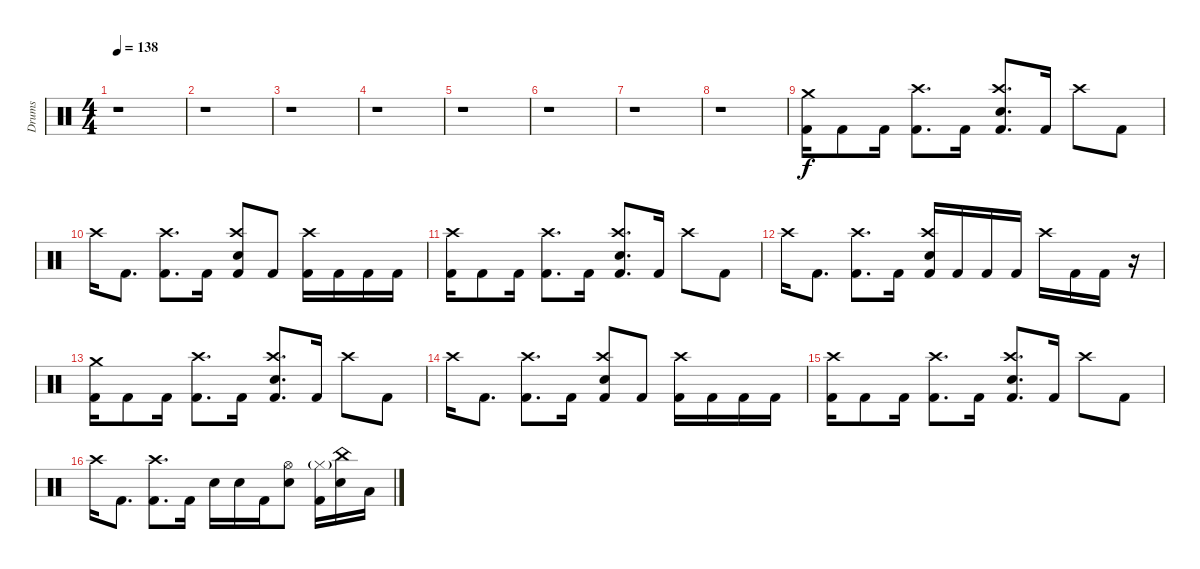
\track ("Drums" "Drums") {instrument percussion}
\staff {score}
\articulation defaults
\ts (4 4)
\tempo 138
\clef neutral
\ks c
r.1{dy f} |
r.1 |
r.1 |
r.1 |
r.1 |
r.1 |
r.1 |
r.1 |
("Crash medium (hit)" "Kick (hit) 2").16 "Kick (hit) 2".8 "Kick (hit) 2".16 ("Crash high (hit)" "Kick (hit) 2").8{d} "Kick (hit) 2".16 ("Crash high (hit)" "Electric Snare (hit)" "Kick (hit) 2").8{d} "Kick (hit) 2".16 "Crash high (hit)".8 "Kick (hit) 2".8 |
"Crash high (hit)".16 "Kick (hit) 2".8{d} ("Crash high (hit)" "Kick (hit) 2").8{d} "Kick (hit) 2".16 ("Crash high (hit)" "Electric Snare (hit)" "Kick (hit) 2").8 "Kick (hit) 2".8 ("Crash high (hit)" "Kick (hit) 2").16 "Kick (hit) 2".16 "Kick (hit) 2".16 "Kick (hit) 2".16 |
("Crash high (hit)" "Kick (hit) 2").16 "Kick (hit) 2".8 "Kick (hit) 2".16 ("Crash high (hit)" "Kick (hit) 2").8{d} "Kick (hit) 2".16 ("Crash high (hit)" "Electric Snare (hit)" "Kick (hit) 2").8{d} "Kick (hit) 2".16 "Crash high (hit)".8 "Kick (hit) 2".8 |
"Crash high (hit)".16 "Kick (hit) 2".8{d} ("Crash high (hit)" "Kick (hit) 2").8{d} "Kick (hit) 2".16 ("Crash high (hit)" "Electric Snare (hit)" "Kick (hit) 2").16 "Kick (hit) 2".16 "Kick (hit) 2".16 "Kick (hit) 2".16 "Crash high (hit)".16 "Kick (hit) 2".16 "Kick (hit) 2".16 r.16 |
("Crash medium (hit)" "Kick (hit) 2").16 "Kick (hit) 2".8 "Kick (hit) 2".16 ("Crash high (hit)" "Kick (hit) 2").8{d} "Kick (hit) 2".16 ("Crash high (hit)" "Electric Snare (hit)" "Kick (hit) 2").8{d} "Kick (hit) 2".16 "Crash high (hit)".8 "Kick (hit) 2".8 |
"Crash high (hit)".16 "Kick (hit) 2".8{d} ("Crash high (hit)" "Kick (hit) 2").8{d} "Kick (hit) 2".16 ("Crash high (hit)" "Electric Snare (hit)" "Kick (hit) 2").8 "Kick (hit) 2".8 ("Crash high (hit)" "Kick (hit) 2").16 "Kick (hit) 2".16 "Kick (hit) 2".16 "Kick (hit) 2".16 |
("Crash high (hit)" "Kick (hit) 2").16 "Kick (hit) 2".8 "Kick (hit) 2".16 ("Crash high (hit)" "Kick (hit) 2").8{d} "Kick (hit) 2".16 ("Crash high (hit)" "Electric Snare (hit)" "Kick (hit) 2").8{d} "Kick (hit) 2".16 "Crash high (hit)".8 "Kick (hit) 2".8 |
"Crash high (hit)".16 "Kick (hit) 2".8{d} ("Crash high (hit)" "Kick (hit) 2").8{d} "Kick (hit) 2".16 "Electric Snare (hit)".16 "Electric Snare (hit)".16 "Kick (hit) 2".16 ("Hi-Hat (open)" "Electric Snare (hit)").8 ("Hi-Hat (closed)"{g} "Kick (hit) 2").16 ("China (hit)" "Electric Snare (hit)").16 "Low Floor Tom (hit)".16
